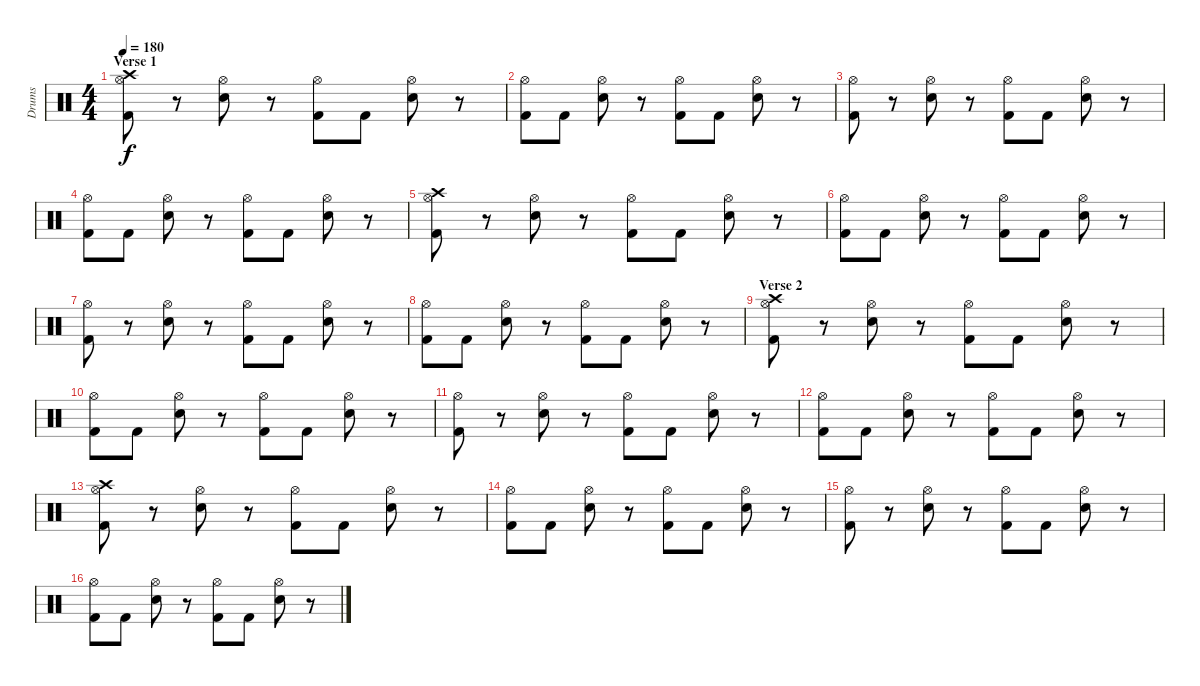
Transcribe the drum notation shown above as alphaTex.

\track ("Drums" "Drums") {instrument percussion}
\staff {score}
\articulation defaults
\ts (4 4)
\section ("" "Verse 1")
\tempo 180
\clef neutral
\ks c
("Crash high (hit)" "Hi-Hat (open)" "Kick (hit) 2").8{dy f} r.8 ("Hi-Hat (open)" "Snare (hit) 2").8 r.8 ("Hi-Hat (open)" "Kick (hit) 2").8 "Kick (hit) 2".8 ("Hi-Hat (open)" "Snare (hit) 2").8 r.8 |
("Hi-Hat (open)" "Kick (hit) 2").8 "Kick (hit) 2".8 ("Hi-Hat (open)" "Snare (hit) 2").8 r.8 ("Hi-Hat (open)" "Kick (hit) 2").8 "Kick (hit) 2".8 ("Hi-Hat (open)" "Snare (hit) 2").8 r.8 |
("Hi-Hat (open)" "Kick (hit) 2").8 r.8 ("Hi-Hat (open)" "Snare (hit) 2").8 r.8 ("Hi-Hat (open)" "Kick (hit) 2").8 "Kick (hit) 2".8 ("Hi-Hat (open)" "Snare (hit) 2").8 r.8 |
("Hi-Hat (open)" "Kick (hit) 2").8 "Kick (hit) 2".8 ("Hi-Hat (open)" "Snare (hit) 2").8 r.8 ("Hi-Hat (open)" "Kick (hit) 2").8 "Kick (hit) 2".8 ("Hi-Hat (open)" "Snare (hit) 2").8 r.8 |
("Crash high (hit)" "Hi-Hat (open)" "Kick (hit) 2").8 r.8 ("Hi-Hat (open)" "Snare (hit) 2").8 r.8 ("Hi-Hat (open)" "Kick (hit) 2").8 "Kick (hit) 2".8 ("Hi-Hat (open)" "Snare (hit) 2").8 r.8 |
("Hi-Hat (open)" "Kick (hit) 2").8 "Kick (hit) 2".8 ("Hi-Hat (open)" "Snare (hit) 2").8 r.8 ("Hi-Hat (open)" "Kick (hit) 2").8 "Kick (hit) 2".8 ("Hi-Hat (open)" "Snare (hit) 2").8 r.8 |
("Hi-Hat (open)" "Kick (hit) 2").8 r.8 ("Hi-Hat (open)" "Snare (hit) 2").8 r.8 ("Hi-Hat (open)" "Kick (hit) 2").8 "Kick (hit) 2".8 ("Hi-Hat (open)" "Snare (hit) 2").8 r.8 |
("Hi-Hat (open)" "Kick (hit) 2").8 "Kick (hit) 2".8 ("Hi-Hat (open)" "Snare (hit) 2").8 r.8 ("Hi-Hat (open)" "Kick (hit) 2").8 "Kick (hit) 2".8 ("Hi-Hat (open)" "Snare (hit) 2").8 r.8 |
\section ("" "Verse 2")
("Crash high (hit)" "Hi-Hat (open)" "Kick (hit) 2").8 r.8 ("Hi-Hat (open)" "Snare (hit) 2").8 r.8 ("Hi-Hat (open)" "Kick (hit) 2").8 "Kick (hit) 2".8 ("Hi-Hat (open)" "Snare (hit) 2").8 r.8 |
("Hi-Hat (open)" "Kick (hit) 2").8 "Kick (hit) 2".8 ("Hi-Hat (open)" "Snare (hit) 2").8 r.8 ("Hi-Hat (open)" "Kick (hit) 2").8 "Kick (hit) 2".8 ("Hi-Hat (open)" "Snare (hit) 2").8 r.8 |
("Hi-Hat (open)" "Kick (hit) 2").8 r.8 ("Hi-Hat (open)" "Snare (hit) 2").8 r.8 ("Hi-Hat (open)" "Kick (hit) 2").8 "Kick (hit) 2".8 ("Hi-Hat (open)" "Snare (hit) 2").8 r.8 |
("Hi-Hat (open)" "Kick (hit) 2").8 "Kick (hit) 2".8 ("Hi-Hat (open)" "Snare (hit) 2").8 r.8 ("Hi-Hat (open)" "Kick (hit) 2").8 "Kick (hit) 2".8 ("Hi-Hat (open)" "Snare (hit) 2").8 r.8 |
("Crash high (hit)" "Hi-Hat (open)" "Kick (hit) 2").8 r.8 ("Hi-Hat (open)" "Snare (hit) 2").8 r.8 ("Hi-Hat (open)" "Kick (hit) 2").8 "Kick (hit) 2".8 ("Hi-Hat (open)" "Snare (hit) 2").8 r.8 |
("Hi-Hat (open)" "Kick (hit) 2").8 "Kick (hit) 2".8 ("Hi-Hat (open)" "Snare (hit) 2").8 r.8 ("Hi-Hat (open)" "Kick (hit) 2").8 "Kick (hit) 2".8 ("Hi-Hat (open)" "Snare (hit) 2").8 r.8 |
("Hi-Hat (open)" "Kick (hit) 2").8 r.8 ("Hi-Hat (open)" "Snare (hit) 2").8 r.8 ("Hi-Hat (open)" "Kick (hit) 2").8 "Kick (hit) 2".8 ("Hi-Hat (open)" "Snare (hit) 2").8 r.8 |
("Hi-Hat (open)" "Kick (hit) 2").8 "Kick (hit) 2".8 ("Hi-Hat (open)" "Snare (hit) 2").8 r.8 ("Hi-Hat (open)" "Kick (hit) 2").8 "Kick (hit) 2".8 ("Hi-Hat (open)" "Snare (hit) 2").8 r.8
